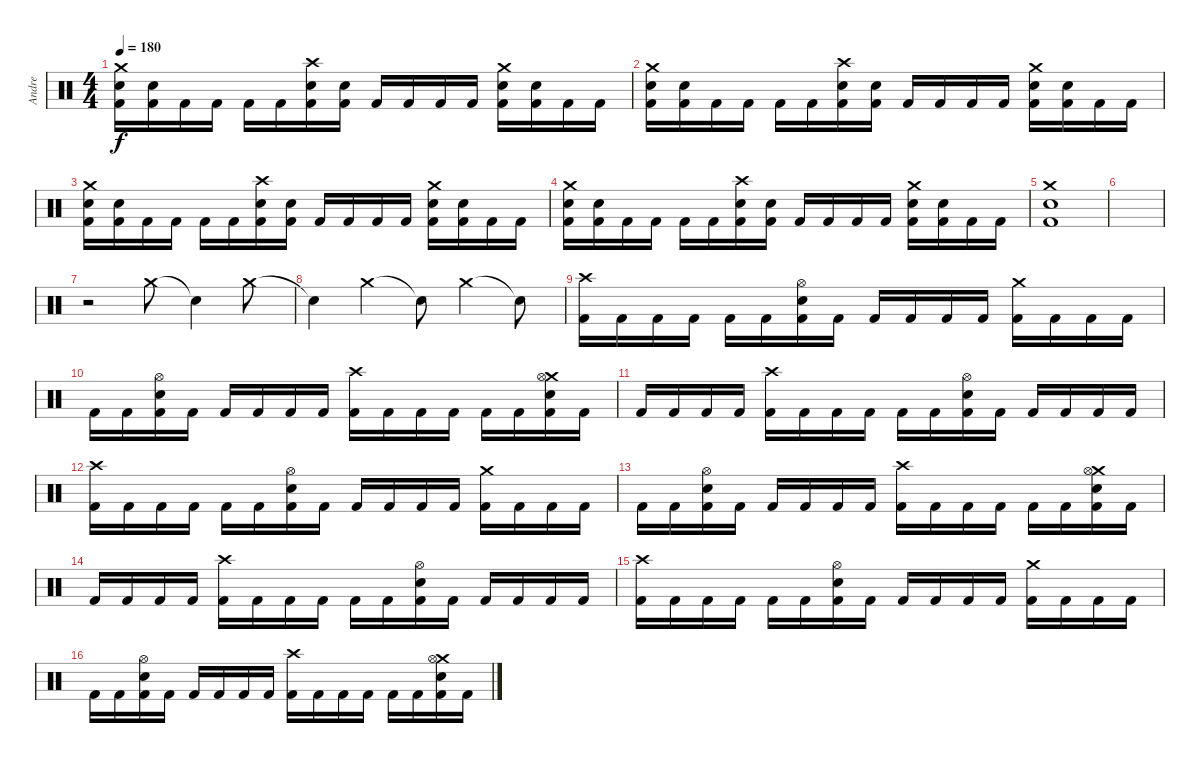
\track ("Andre" "Andre") {instrument percussion}
\staff {score}
\articulation defaults
\ts (4 4)
\tempo 180
\clef neutral
\ks c
("Crash medium (hit)" "Snare (hit) 2" "Kick (hit) 2").16{dy f} ("Snare (hit) 2" "Kick (hit) 2").16 "Kick (hit) 2".16 "Kick (hit) 2".16 "Kick (hit) 2".16 "Kick (hit) 2".16 ("Crash high (hit)" "Snare (hit) 2" "Kick (hit) 2").16 ("Snare (hit) 2" "Kick (hit) 2").16 "Kick (hit) 2".16 "Kick (hit) 2".16 "Kick (hit) 2".16 "Kick (hit) 2".16 ("Crash medium (hit)" "Snare (hit) 2" "Kick (hit) 2").16 ("Snare (hit) 2" "Kick (hit) 2").16 "Kick (hit) 2".16 "Kick (hit) 2".16 |
("Crash medium (hit)" "Snare (hit) 2" "Kick (hit) 2").16 ("Snare (hit) 2" "Kick (hit) 2").16 "Kick (hit) 2".16 "Kick (hit) 2".16 "Kick (hit) 2".16 "Kick (hit) 2".16 ("Crash high (hit)" "Snare (hit) 2" "Kick (hit) 2").16 ("Snare (hit) 2" "Kick (hit) 2").16 "Kick (hit) 2".16 "Kick (hit) 2".16 "Kick (hit) 2".16 "Kick (hit) 2".16 ("Crash medium (hit)" "Snare (hit) 2" "Kick (hit) 2").16 ("Snare (hit) 2" "Kick (hit) 2").16 "Kick (hit) 2".16 "Kick (hit) 2".16 |
("Crash medium (hit)" "Snare (hit) 2" "Kick (hit) 2").16 ("Snare (hit) 2" "Kick (hit) 2").16 "Kick (hit) 2".16 "Kick (hit) 2".16 "Kick (hit) 2".16 "Kick (hit) 2".16 ("Crash high (hit)" "Snare (hit) 2" "Kick (hit) 2").16 ("Snare (hit) 2" "Kick (hit) 2").16 "Kick (hit) 2".16 "Kick (hit) 2".16 "Kick (hit) 2".16 "Kick (hit) 2".16 ("Crash medium (hit)" "Snare (hit) 2" "Kick (hit) 2").16 ("Snare (hit) 2" "Kick (hit) 2").16 "Kick (hit) 2".16 "Kick (hit) 2".16 |
("Crash medium (hit)" "Snare (hit) 2" "Kick (hit) 2").16 ("Snare (hit) 2" "Kick (hit) 2").16 "Kick (hit) 2".16 "Kick (hit) 2".16 "Kick (hit) 2".16 "Kick (hit) 2".16 ("Crash high (hit)" "Snare (hit) 2" "Kick (hit) 2").16 ("Snare (hit) 2" "Kick (hit) 2").16 "Kick (hit) 2".16 "Kick (hit) 2".16 "Kick (hit) 2".16 "Kick (hit) 2".16 ("Crash medium (hit)" "Snare (hit) 2" "Kick (hit) 2").16 ("Snare (hit) 2" "Kick (hit) 2").16 "Kick (hit) 2".16 "Kick (hit) 2".16 |
("Crash medium (hit)" "Snare (hit) 2" "Kick (hit) 2").1 |
|
r.2 "Crash medium (hit)".8 "Snare (hit)"{t}.4 "Crash medium (hit)".8 |
"Snare (hit)"{t}.4 "Crash medium (hit)".4 "Snare (hit)"{t}.8 "Crash medium (hit)".4 "Snare (hit)"{t}.8 |
("Crash high (hit)" "Kick (hit) 2").16 "Kick (hit) 2".16 "Kick (hit) 2".16 "Kick (hit) 2".16 "Kick (hit) 2".16 "Kick (hit) 2".16 ("Hi-Hat (open)" "Snare (hit) 2" "Kick (hit) 2").16 "Kick (hit) 2".16 "Kick (hit) 2".16 "Kick (hit) 2".16 "Kick (hit) 2".16 "Kick (hit) 2".16 ("Crash medium (hit)" "Kick (hit) 2").16 "Kick (hit) 2".16 "Kick (hit) 2".16 "Kick (hit) 2".16 |
"Kick (hit) 2".16 "Kick (hit) 2".16 ("Hi-Hat (open)" "Snare (hit) 2" "Kick (hit) 2").16 "Kick (hit) 2".16 "Kick (hit) 2".16 "Kick (hit) 2".16 "Kick (hit) 2".16 "Kick (hit) 2".16 ("Crash high (hit)" "Kick (hit) 2").16 "Kick (hit) 2".16 "Kick (hit) 2".16 "Kick (hit) 2".16 "Kick (hit) 2".16 "Kick (hit) 2".16 ("Crash medium (hit)" "Hi-Hat (open)" "Snare (hit) 2" "Kick (hit) 2").16 "Kick (hit) 2".16 |
"Kick (hit) 2".16 "Kick (hit) 2".16 "Kick (hit) 2".16 "Kick (hit) 2".16 ("Crash high (hit)" "Kick (hit) 2").16 "Kick (hit) 2".16 "Kick (hit) 2".16 "Kick (hit) 2".16 "Kick (hit) 2".16 "Kick (hit) 2".16 ("Hi-Hat (open)" "Snare (hit) 2" "Kick (hit) 2").16 "Kick (hit) 2".16 "Kick (hit) 2".16 "Kick (hit) 2".16 "Kick (hit) 2".16 "Kick (hit) 2".16 |
("Crash high (hit)" "Kick (hit) 2").16 "Kick (hit) 2".16 "Kick (hit) 2".16 "Kick (hit) 2".16 "Kick (hit) 2".16 "Kick (hit) 2".16 ("Hi-Hat (open)" "Snare (hit) 2" "Kick (hit) 2").16 "Kick (hit) 2".16 "Kick (hit) 2".16 "Kick (hit) 2".16 "Kick (hit) 2".16 "Kick (hit) 2".16 ("Crash medium (hit)" "Kick (hit) 2").16 "Kick (hit) 2".16 "Kick (hit) 2".16 "Kick (hit) 2".16 |
"Kick (hit) 2".16 "Kick (hit) 2".16 ("Hi-Hat (open)" "Snare (hit) 2" "Kick (hit) 2").16 "Kick (hit) 2".16 "Kick (hit) 2".16 "Kick (hit) 2".16 "Kick (hit) 2".16 "Kick (hit) 2".16 ("Crash high (hit)" "Kick (hit) 2").16 "Kick (hit) 2".16 "Kick (hit) 2".16 "Kick (hit) 2".16 "Kick (hit) 2".16 "Kick (hit) 2".16 ("Crash medium (hit)" "Hi-Hat (open)" "Snare (hit) 2" "Kick (hit) 2").16 "Kick (hit) 2".16 |
"Kick (hit) 2".16 "Kick (hit) 2".16 "Kick (hit) 2".16 "Kick (hit) 2".16 ("Crash high (hit)" "Kick (hit) 2").16 "Kick (hit) 2".16 "Kick (hit) 2".16 "Kick (hit) 2".16 "Kick (hit) 2".16 "Kick (hit) 2".16 ("Hi-Hat (open)" "Snare (hit) 2" "Kick (hit) 2").16 "Kick (hit) 2".16 "Kick (hit) 2".16 "Kick (hit) 2".16 "Kick (hit) 2".16 "Kick (hit) 2".16 |
("Crash high (hit)" "Kick (hit) 2").16 "Kick (hit) 2".16 "Kick (hit) 2".16 "Kick (hit) 2".16 "Kick (hit) 2".16 "Kick (hit) 2".16 ("Hi-Hat (open)" "Snare (hit) 2" "Kick (hit) 2").16 "Kick (hit) 2".16 "Kick (hit) 2".16 "Kick (hit) 2".16 "Kick (hit) 2".16 "Kick (hit) 2".16 ("Crash medium (hit)" "Kick (hit) 2").16 "Kick (hit) 2".16 "Kick (hit) 2".16 "Kick (hit) 2".16 |
"Kick (hit) 2".16 "Kick (hit) 2".16 ("Hi-Hat (open)" "Snare (hit) 2" "Kick (hit) 2").16 "Kick (hit) 2".16 "Kick (hit) 2".16 "Kick (hit) 2".16 "Kick (hit) 2".16 "Kick (hit) 2".16 ("Crash high (hit)" "Kick (hit) 2").16 "Kick (hit) 2".16 "Kick (hit) 2".16 "Kick (hit) 2".16 "Kick (hit) 2".16 "Kick (hit) 2".16 ("Crash medium (hit)" "Hi-Hat (open)" "Snare (hit) 2" "Kick (hit) 2").16 "Kick (hit) 2".16
